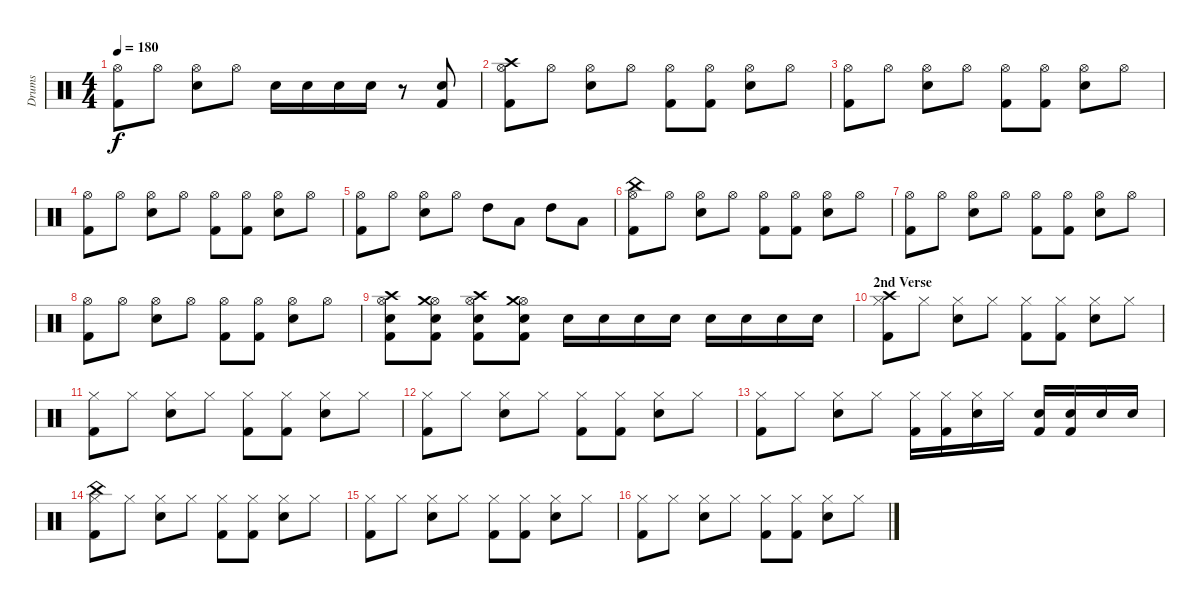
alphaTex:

\track ("Drums" "Drums") {instrument percussion}
\staff {score}
\articulation defaults
\ts (4 4)
\tempo 180
\clef neutral
\ks c
("Hi-Hat (open)" "Kick (hit) 2").8{dy f} "Hi-Hat (open)".8 ("Hi-Hat (open)" "Snare (hit) 2").8 "Hi-Hat (open)".8 "Snare (hit) 2".16 "Snare (hit) 2".16 "Snare (hit) 2".16 "Snare (hit) 2".16 r.8 ("Snare (hit) 2" "Kick (hit) 2").8 |
("Hi-Hat (open)" "Crash high (hit)" "Kick (hit) 2").8 "Hi-Hat (open)".8 ("Hi-Hat (open)" "Snare (hit) 2").8 "Hi-Hat (open)".8 ("Hi-Hat (open)" "Kick (hit) 2").8 ("Hi-Hat (open)" "Kick (hit) 2").8 ("Hi-Hat (open)" "Snare (hit) 2").8 "Hi-Hat (open)".8 |
("Hi-Hat (open)" "Kick (hit) 2").8 "Hi-Hat (open)".8 ("Hi-Hat (open)" "Snare (hit) 2").8 "Hi-Hat (open)".8 ("Hi-Hat (open)" "Kick (hit) 2").8 ("Hi-Hat (open)" "Kick (hit) 2").8 ("Hi-Hat (open)" "Snare (hit) 2").8 "Hi-Hat (open)".8 |
("Hi-Hat (open)" "Kick (hit) 2").8 "Hi-Hat (open)".8 ("Hi-Hat (open)" "Snare (hit) 2").8 "Hi-Hat (open)".8 ("Hi-Hat (open)" "Kick (hit) 2").8 ("Hi-Hat (open)" "Kick (hit) 2").8 ("Hi-Hat (open)" "Snare (hit) 2").8 "Hi-Hat (open)".8 |
("Hi-Hat (open)" "Kick (hit) 2").8 "Hi-Hat (open)".8 ("Hi-Hat (open)" "Snare (hit) 2").8 "Hi-Hat (open)".8 "High Tom (hit)".8 "Low Tom (hit)".8 "High Tom (hit)".8 "Low Tom (hit)".8 |
("Hi-Hat (open)" "China (hit)" "Kick (hit) 2").8 "Hi-Hat (open)".8 ("Hi-Hat (open)" "Snare (hit) 2").8 "Hi-Hat (open)".8 ("Hi-Hat (open)" "Kick (hit) 2").8 ("Hi-Hat (open)" "Kick (hit) 2").8 ("Hi-Hat (open)" "Snare (hit) 2").8 "Hi-Hat (open)".8 |
("Hi-Hat (open)" "Kick (hit) 2").8 "Hi-Hat (open)".8 ("Hi-Hat (open)" "Snare (hit) 2").8 "Hi-Hat (open)".8 ("Hi-Hat (open)" "Kick (hit) 2").8 ("Hi-Hat (open)" "Kick (hit) 2").8 ("Hi-Hat (open)" "Snare (hit) 2").8 "Hi-Hat (open)".8 |
("Hi-Hat (open)" "Kick (hit) 2").8 "Hi-Hat (open)".8 ("Hi-Hat (open)" "Snare (hit) 2").8 "Hi-Hat (open)".8 ("Hi-Hat (open)" "Kick (hit) 2").8 ("Hi-Hat (open)" "Kick (hit) 2").8 ("Hi-Hat (open)" "Snare (hit) 2").8 "Hi-Hat (open)".8 |
("Hi-Hat (open)" "Crash high (hit)" "Snare (hit) 2" "Kick (hit) 2").8 ("Hi-Hat (open)" "Crash medium (hit)" "Snare (hit) 2" "Kick (hit) 2").8 ("Hi-Hat (open)" "Crash high (hit)" "Snare (hit) 2" "Kick (hit) 2").8 ("Hi-Hat (open)" "Crash medium (hit)" "Snare (hit) 2" "Kick (hit) 2").8 "Snare (hit) 2".16 "Snare (hit) 2".16 "Snare (hit) 2".16 "Snare (hit) 2".16 "Snare (hit) 2".16 "Snare (hit) 2".16 "Snare (hit) 2".16 "Snare (hit) 2".16 |
\section ("" "2nd Verse")
("Hi-Hat (closed)" "Crash high (hit)" "Kick (hit) 2").8 "Hi-Hat (closed)".8 ("Hi-Hat (closed)" "Snare (hit) 2").8 "Hi-Hat (closed)".8 ("Hi-Hat (closed)" "Kick (hit) 2").8 ("Hi-Hat (closed)" "Kick (hit) 2").8 ("Hi-Hat (closed)" "Snare (hit) 2").8 "Hi-Hat (closed)".8 |
("Hi-Hat (closed)" "Kick (hit) 2").8 "Hi-Hat (closed)".8 ("Hi-Hat (closed)" "Snare (hit) 2").8 "Hi-Hat (closed)".8 ("Hi-Hat (closed)" "Kick (hit) 2").8 ("Hi-Hat (closed)" "Kick (hit) 2").8 ("Hi-Hat (closed)" "Snare (hit) 2").8 "Hi-Hat (closed)".8 |
("Hi-Hat (closed)" "Kick (hit) 2").8 "Hi-Hat (closed)".8 ("Hi-Hat (closed)" "Snare (hit) 2").8 "Hi-Hat (closed)".8 ("Hi-Hat (closed)" "Kick (hit) 2").8 ("Hi-Hat (closed)" "Kick (hit) 2").8 ("Hi-Hat (closed)" "Snare (hit) 2").8 "Hi-Hat (closed)".8 |
("Hi-Hat (closed)" "Kick (hit) 2").8 "Hi-Hat (closed)".8 ("Hi-Hat (closed)" "Snare (hit) 2").8 "Hi-Hat (closed)".8 ("Hi-Hat (closed)" "Kick (hit) 2").16 ("Hi-Hat (closed)" "Kick (hit) 2").16 ("Hi-Hat (closed)" "Snare (hit) 2").16 "Hi-Hat (closed)".16 ("Snare (hit) 2" "Kick (hit) 2").16 ("Snare (hit) 2" "Kick (hit) 2").16 "Snare (hit) 2".16 "Snare (hit) 2".16 |
("Hi-Hat (closed)" "China (hit)" "Kick (hit) 2").8 "Hi-Hat (closed)".8 ("Hi-Hat (closed)" "Snare (hit) 2").8 "Hi-Hat (closed)".8 ("Hi-Hat (closed)" "Kick (hit) 2").8 ("Hi-Hat (closed)" "Kick (hit) 2").8 ("Hi-Hat (closed)" "Snare (hit) 2").8 "Hi-Hat (closed)".8 |
("Hi-Hat (closed)" "Kick (hit) 2").8 "Hi-Hat (closed)".8 ("Hi-Hat (closed)" "Snare (hit) 2").8 "Hi-Hat (closed)".8 ("Hi-Hat (closed)" "Kick (hit) 2").8 ("Hi-Hat (closed)" "Kick (hit) 2").8 ("Hi-Hat (closed)" "Snare (hit) 2").8 "Hi-Hat (closed)".8 |
("Hi-Hat (closed)" "Kick (hit) 2").8 "Hi-Hat (closed)".8 ("Hi-Hat (closed)" "Snare (hit) 2").8 "Hi-Hat (closed)".8 ("Hi-Hat (closed)" "Kick (hit) 2").8 ("Hi-Hat (closed)" "Kick (hit) 2").8 ("Hi-Hat (closed)" "Snare (hit) 2").8 "Hi-Hat (closed)".8
